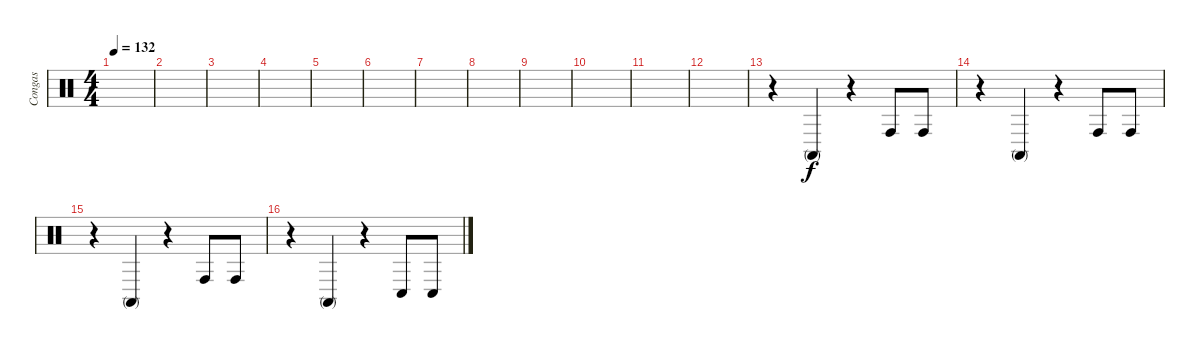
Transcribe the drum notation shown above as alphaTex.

\track ("Congas" "Congas") {instrument percussion}
\staff {score}
\articulation defaults
\ts (4 4)
\tempo 132
\clef neutral
\ks c
|
|
|
|
|
|
|
|
|
|
|
|
r.4 "Conga high (mute)".4 r.4 "Conga high (hit)".8 "Conga high (hit)".8 |
r.4 "Conga high (mute)".4 r.4 "Conga high (hit)".8 "Conga high (hit)".8 |
r.4 "Conga high (mute)".4 r.4 "Conga high (hit)".8 "Conga high (hit)".8 |
r.4 "Conga high (mute)".4 r.4 "Conga low (hit)".8 "Conga low (hit)".8
